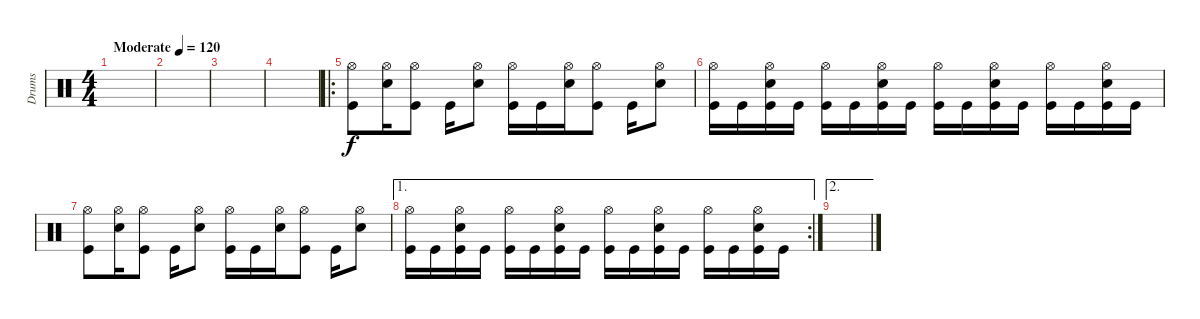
\track ("Drums" "Drums") {instrument percussion}
\staff {score}
\articulation defaults
\ts (4 4)
\tempo (120 "Moderate")
\clef neutral
\ks c
|
|
|
|
\ro
("Hi-Hat (open)" "Kick (hit)").8 ("Hi-Hat (open)" "Snare (hit) 2").16 ("Hi-Hat (open)" "Kick (hit)").8 "Kick (hit)".16 ("Hi-Hat (open)" "Snare (hit) 2").8 ("Hi-Hat (open)" "Kick (hit)").16 "Kick (hit)".16 ("Hi-Hat (open)" "Snare (hit) 2").16 ("Hi-Hat (open)" "Kick (hit)").8 "Kick (hit)".16 ("Hi-Hat (open)" "Snare (hit) 2").8 |
("Hi-Hat (open)" "Kick (hit)").16 "Kick (hit)".16 ("Hi-Hat (open)" "Snare (hit) 2" "Kick (hit)").16 "Kick (hit)".16 ("Hi-Hat (open)" "Kick (hit)").16 "Kick (hit)".16 ("Hi-Hat (open)" "Snare (hit) 2" "Kick (hit)").16 "Kick (hit)".16 ("Hi-Hat (open)" "Kick (hit)").16 "Kick (hit)".16 ("Hi-Hat (open)" "Snare (hit) 2" "Kick (hit)").16 "Kick (hit)".16 ("Hi-Hat (open)" "Kick (hit)").16 "Kick (hit)".16 ("Hi-Hat (open)" "Snare (hit) 2" "Kick (hit)").16 "Kick (hit)".16 |
("Hi-Hat (open)" "Kick (hit)").8 ("Hi-Hat (open)" "Snare (hit) 2").16 ("Hi-Hat (open)" "Kick (hit)").8 "Kick (hit)".16 ("Hi-Hat (open)" "Snare (hit) 2").8 ("Hi-Hat (open)" "Kick (hit)").16 "Kick (hit)".16 ("Hi-Hat (open)" "Snare (hit) 2").16 ("Hi-Hat (open)" "Kick (hit)").8 "Kick (hit)".16 ("Hi-Hat (open)" "Snare (hit) 2").8 |
\ae 1
\rc 2
("Hi-Hat (open)" "Kick (hit)").16 "Kick (hit)".16 ("Hi-Hat (open)" "Snare (hit) 2" "Kick (hit)").16 "Kick (hit)".16 ("Hi-Hat (open)" "Kick (hit)").16 "Kick (hit)".16 ("Hi-Hat (open)" "Snare (hit) 2" "Kick (hit)").16 "Kick (hit)".16 ("Hi-Hat (open)" "Kick (hit)").16 "Kick (hit)".16 ("Hi-Hat (open)" "Snare (hit) 2" "Kick (hit)").16 "Kick (hit)".16 ("Hi-Hat (open)" "Kick (hit)").16 "Kick (hit)".16 ("Hi-Hat (open)" "Snare (hit) 2" "Kick (hit)").16 "Kick (hit)".16 |
\ae 2
